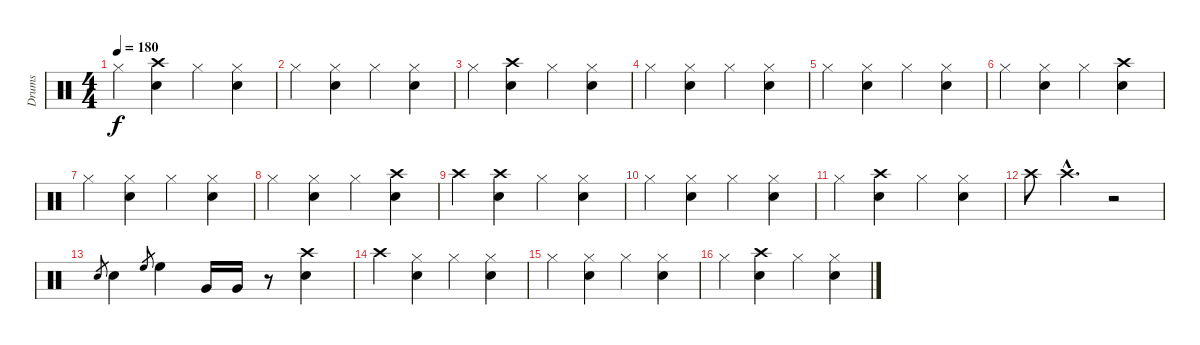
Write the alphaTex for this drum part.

\track ("Drums" "Drums") {instrument percussion}
\staff {score}
\articulation defaults
\ts (4 4)
\tempo 180
\clef neutral
\ks c "Hi-Hat (closed)".4{dy f}
("Crash high (hit)" "Snare (hit) 2").4 "Hi-Hat (closed)".4 ("Hi-Hat (closed)" "Snare (hit) 2").4 |
"Hi-Hat (closed)".4 ("Hi-Hat (closed)" "Snare (hit) 2").4 "Hi-Hat (closed)".4 ("Hi-Hat (closed)" "Snare (hit) 2").4 |
"Hi-Hat (closed)".4 ("Crash high (hit)" "Snare (hit) 2").4 "Hi-Hat (closed)".4 ("Hi-Hat (closed)" "Snare (hit) 2").4 |
"Hi-Hat (closed)".4 ("Hi-Hat (closed)" "Snare (hit) 2").4 "Hi-Hat (closed)".4 ("Hi-Hat (closed)" "Snare (hit) 2").4 |
"Hi-Hat (closed)".4 ("Hi-Hat (closed)" "Snare (hit) 2").4 "Hi-Hat (closed)".4 ("Hi-Hat (closed)" "Snare (hit) 2").4 |
"Hi-Hat (closed)".4 ("Hi-Hat (closed)" "Snare (hit) 2").4 "Hi-Hat (closed)".4 ("Crash high (hit)" "Snare (hit) 2").4 |
"Hi-Hat (closed)".4 ("Hi-Hat (closed)" "Snare (hit) 2").4 "Hi-Hat (closed)".4 ("Hi-Hat (closed)" "Snare (hit) 2").4 |
"Hi-Hat (closed)".4 ("Hi-Hat (closed)" "Snare (hit) 2").4 "Hi-Hat (closed)".4 ("Crash high (hit)" "Snare (hit) 2").4 |
"Crash high (hit)".4 ("Crash high (hit)" "Snare (hit) 2").4 "Hi-Hat (closed)".4 ("Hi-Hat (closed)" "Snare (hit) 2").4 |
"Hi-Hat (closed)".4 ("Hi-Hat (closed)" "Snare (hit) 2").4 "Hi-Hat (closed)".4 ("Hi-Hat (closed)" "Snare (hit) 2").4 |
"Hi-Hat (closed)".4 ("Crash high (hit)" "Snare (hit) 2").4 "Hi-Hat (closed)".4 ("Hi-Hat (closed)" "Snare (hit) 2").4 |
"Crash high (hit)".8 "Crash high (hit)"{hac}.4{d} r.2 |
"Snare (hit) 2".8{gr} "Snare (hit) 2".4 "High Floor Tom (hit)".8{gr} "High Floor Tom (hit)".4 "Very Low Tom (hit)".16 "Very Low Tom (hit)".16 r.8 ("Crash high (hit)" "Snare (hit) 2").4 |
"Crash high (hit)".4 ("Hi-Hat (closed)" "Snare (hit) 2").4 "Hi-Hat (closed)".4 ("Hi-Hat (closed)" "Snare (hit) 2").4 |
"Hi-Hat (closed)".4 ("Hi-Hat (closed)" "Snare (hit) 2").4 "Hi-Hat (closed)".4 ("Hi-Hat (closed)" "Snare (hit) 2").4 |
"Hi-Hat (closed)".4 ("Crash high (hit)" "Snare (hit) 2").4 "Hi-Hat (closed)".4 ("Hi-Hat (closed)" "Snare (hit) 2").4
